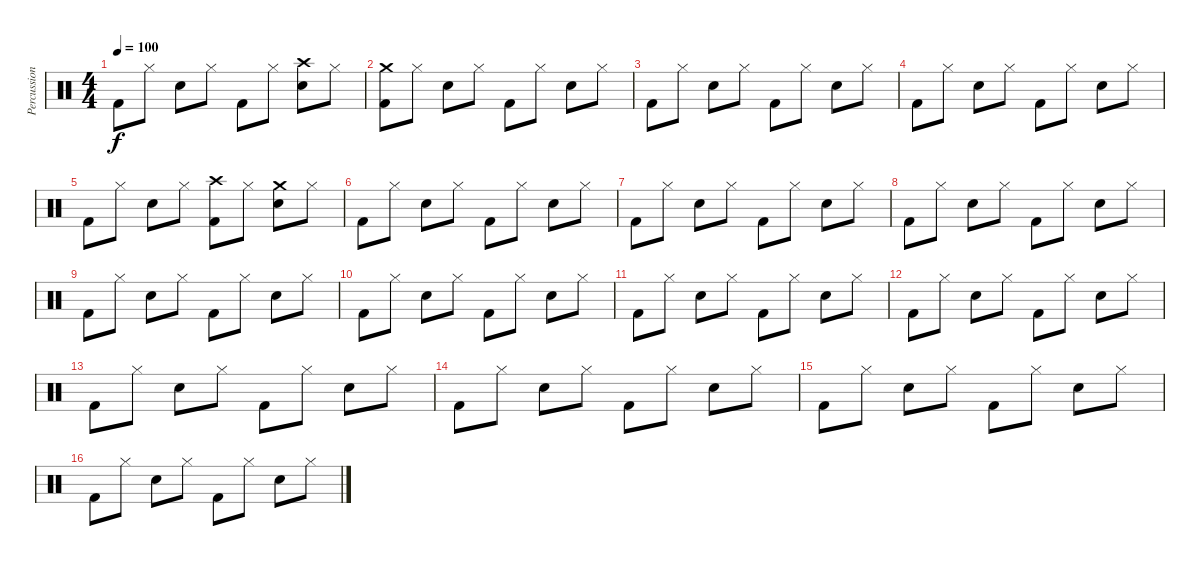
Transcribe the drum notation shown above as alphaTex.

\track ("Percussions" "Percussion") {instrument percussion}
\staff {score}
\articulation defaults
\ts (4 4)
\tempo 100
\clef neutral
\ks c "Kick (hit) 2".8{dy f} "Hi-Hat (closed)".8 "Electric Snare (hit)".8 "Hi-Hat (closed)".8 "Kick (hit) 2".8 "Hi-Hat (closed)".8
("Crash high (hit)" "Electric Snare (hit)").8 "Hi-Hat (closed)".8 |
("Crash medium (hit)" "Kick (hit) 2").8 "Hi-Hat (closed)".8 "Electric Snare (hit)".8 "Hi-Hat (closed)".8 "Kick (hit) 2".8 "Hi-Hat (closed)".8 "Electric Snare (hit)".8 "Hi-Hat (closed)".8 |
"Kick (hit) 2".8 "Hi-Hat (closed)".8 "Electric Snare (hit)".8 "Hi-Hat (closed)".8 "Kick (hit) 2".8 "Hi-Hat (closed)".8 "Electric Snare (hit)".8 "Hi-Hat (closed)".8 |
"Kick (hit) 2".8 "Hi-Hat (closed)".8 "Electric Snare (hit)".8 "Hi-Hat (closed)".8 "Kick (hit) 2".8 "Hi-Hat (closed)".8 "Electric Snare (hit)".8 "Hi-Hat (closed)".8 |
"Kick (hit) 2".8 "Hi-Hat (closed)".8 "Electric Snare (hit)".8 "Hi-Hat (closed)".8 ("Crash high (hit)" "Kick (hit) 2").8 "Hi-Hat (closed)".8 ("Crash medium (hit)" "Electric Snare (hit)").8 "Hi-Hat (closed)".8 |
"Kick (hit) 2".8 "Hi-Hat (closed)".8 "Electric Snare (hit)".8 "Hi-Hat (closed)".8 "Kick (hit) 2".8 "Hi-Hat (closed)".8 "Electric Snare (hit)".8 "Hi-Hat (closed)".8 |
"Kick (hit) 2".8 "Hi-Hat (closed)".8 "Electric Snare (hit)".8 "Hi-Hat (closed)".8 "Kick (hit) 2".8 "Hi-Hat (closed)".8 "Electric Snare (hit)".8 "Hi-Hat (closed)".8 |
"Kick (hit) 2".8 "Hi-Hat (closed)".8 "Electric Snare (hit)".8 "Hi-Hat (closed)".8 "Kick (hit) 2".8 "Hi-Hat (closed)".8 "Electric Snare (hit)".8 "Hi-Hat (closed)".8 |
"Kick (hit) 2".8 "Hi-Hat (closed)".8 "Electric Snare (hit)".8 "Hi-Hat (closed)".8 "Kick (hit) 2".8 "Hi-Hat (closed)".8 "Electric Snare (hit)".8 "Hi-Hat (closed)".8 |
"Kick (hit) 2".8 "Hi-Hat (closed)".8 "Electric Snare (hit)".8 "Hi-Hat (closed)".8 "Kick (hit) 2".8 "Hi-Hat (closed)".8 "Electric Snare (hit)".8 "Hi-Hat (closed)".8 |
"Kick (hit) 2".8 "Hi-Hat (closed)".8 "Electric Snare (hit)".8 "Hi-Hat (closed)".8 "Kick (hit) 2".8 "Hi-Hat (closed)".8 "Electric Snare (hit)".8 "Hi-Hat (closed)".8 |
"Kick (hit) 2".8 "Hi-Hat (closed)".8 "Electric Snare (hit)".8 "Hi-Hat (closed)".8 "Kick (hit) 2".8 "Hi-Hat (closed)".8 "Electric Snare (hit)".8 "Hi-Hat (closed)".8 |
"Kick (hit) 2".8 "Hi-Hat (closed)".8 "Electric Snare (hit)".8 "Hi-Hat (closed)".8 "Kick (hit) 2".8 "Hi-Hat (closed)".8 "Electric Snare (hit)".8 "Hi-Hat (closed)".8 |
"Kick (hit) 2".8 "Hi-Hat (closed)".8 "Electric Snare (hit)".8 "Hi-Hat (closed)".8 "Kick (hit) 2".8 "Hi-Hat (closed)".8 "Electric Snare (hit)".8 "Hi-Hat (closed)".8 |
"Kick (hit) 2".8 "Hi-Hat (closed)".8 "Electric Snare (hit)".8 "Hi-Hat (closed)".8 "Kick (hit) 2".8 "Hi-Hat (closed)".8 "Electric Snare (hit)".8 "Hi-Hat (closed)".8 |
"Kick (hit) 2".8 "Hi-Hat (closed)".8 "Electric Snare (hit)".8 "Hi-Hat (closed)".8 "Kick (hit) 2".8 "Hi-Hat (closed)".8 "Electric Snare (hit)".8 "Hi-Hat (closed)".8
